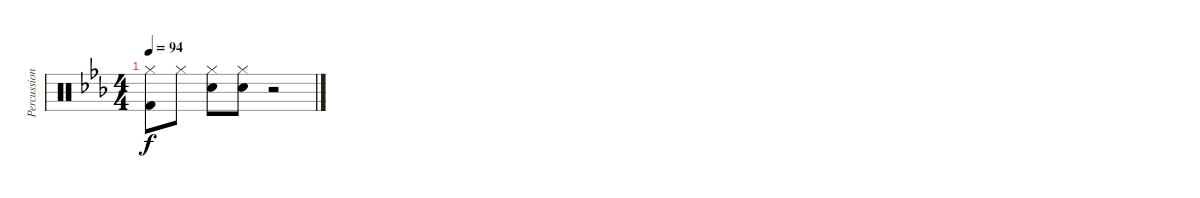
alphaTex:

\track ("Percussion" "Percussion") {instrument percussion}
\staff {score}
\articulation defaults
\ts (4 4)
\tempo 94
\clef neutral
\ks eb
("Hi-Hat (closed)" "Kick (hit) 2").8{dy f} "Hi-Hat (closed)".8 ("Hi-Hat (closed)" "Snare (hit) 2").8 ("Hi-Hat (closed)" "Snare (hit) 2").8 r.2
